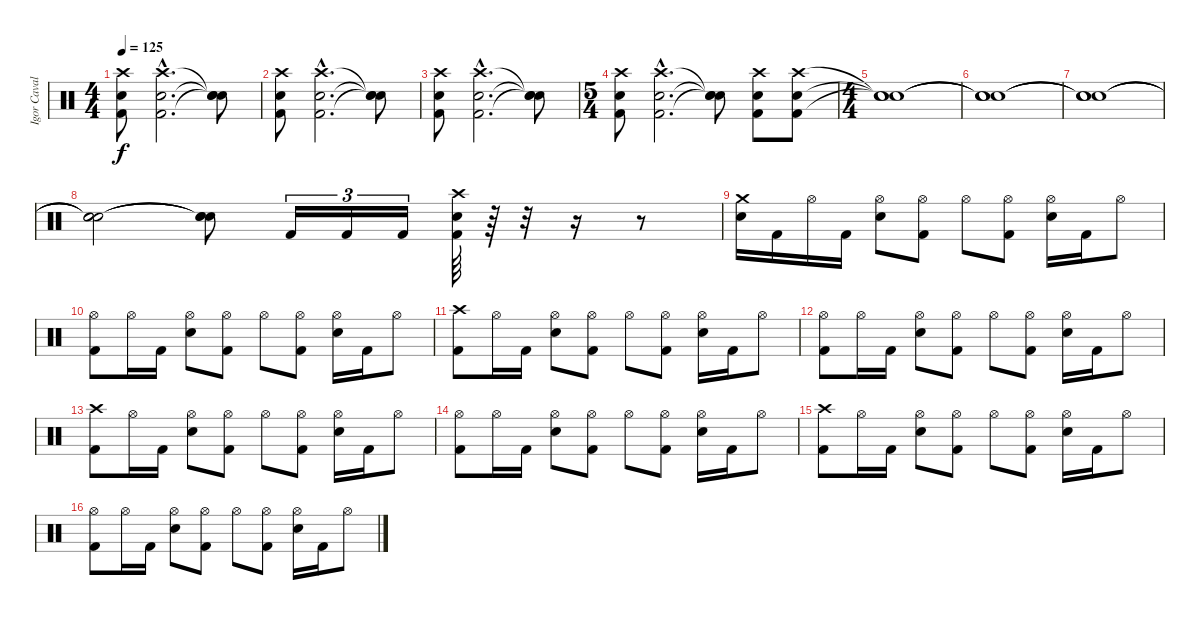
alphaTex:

\track ("Igor Cavalera" "Igor Caval") {instrument percussion}
\staff {score}
\articulation defaults
\ts (4 4)
\tempo 125
\clef neutral
\ks c
("Crash high (hit)" "Electric Snare (hit)" "Kick (hit) 2").8{dy f} ("Crash high (hit)"{hac} "Electric Snare (hit)"{hac} "Kick (hit) 2"{hac}).2{d} ("Snare (hit)"{t} "Snare (hit)"{t} "Snare (hit)"{t}).8 |
("Crash high (hit)" "Electric Snare (hit)" "Kick (hit) 2").8 ("Crash high (hit)"{hac} "Electric Snare (hit)"{hac} "Kick (hit) 2"{hac}).2{d} ("Snare (hit)"{t} "Snare (hit)"{t} "Snare (hit)"{t}).8 |
("Crash high (hit)" "Electric Snare (hit)" "Kick (hit) 2").8 ("Crash high (hit)"{hac} "Electric Snare (hit)"{hac} "Kick (hit) 2"{hac}).2{d} ("Snare (hit)"{t} "Snare (hit)"{t} "Snare (hit)"{t}).8 |
\ts (5 4)
("Crash high (hit)" "Electric Snare (hit)" "Kick (hit) 2").8 ("Crash high (hit)"{hac} "Electric Snare (hit)"{hac} "Kick (hit) 2"{hac}).2{d} ("Snare (hit)"{t} "Snare (hit)"{t} "Snare (hit)"{t}).8 ("Crash high (hit)" "Electric Snare (hit)" "Kick (hit) 2").8 ("Crash high (hit)" "Electric Snare (hit)" "Kick (hit) 2").8 |
\ts (4 4)
("Snare (hit)"{t} "Snare (hit)"{t} "Snare (hit)"{t}).1 |
("Snare (hit)"{t} "Snare (hit)"{t} "Snare (hit)"{t}).1 |
("Snare (hit)"{t} "Snare (hit)"{t} "Snare (hit)"{t}).1 |
("Snare (hit)"{t} "Snare (hit)"{t} "Snare (hit)"{t}).2 ("Snare (hit)"{t} "Snare (hit)"{t} "Snare (hit)"{t}).8 "Kick (hit) 2".16{tu (3 2)} "Kick (hit) 2".16{tu (3 2)} "Kick (hit) 2".16{tu (3 2)} ("Crash high (hit)" "Electric Snare (hit)" "Kick (hit) 2").64 r.64 r.32 r.16 r.8 |
("Crash medium (hit)" "Electric Snare (hit)").16 "Kick (hit) 2".16 "Hi-Hat (open)".16 "Kick (hit) 2".16 ("Hi-Hat (open)" "Electric Snare (hit)").8 ("Hi-Hat (open)" "Kick (hit) 2").8 "Hi-Hat (open)".8 ("Hi-Hat (open)" "Kick (hit) 2").8 ("Hi-Hat (open)" "Electric Snare (hit)").16 "Kick (hit) 2".16 "Hi-Hat (open)".8 |
("Hi-Hat (open)" "Kick (hit) 2").8 "Hi-Hat (open)".16 "Kick (hit) 2".16 ("Hi-Hat (open)" "Electric Snare (hit)").8 ("Hi-Hat (open)" "Kick (hit) 2").8 "Hi-Hat (open)".8 ("Hi-Hat (open)" "Kick (hit) 2").8 ("Hi-Hat (open)" "Electric Snare (hit)").16 "Kick (hit) 2".16 "Hi-Hat (open)".8 |
("Crash high (hit)" "Kick (hit) 2").8 "Hi-Hat (open)".16 "Kick (hit) 2".16 ("Hi-Hat (open)" "Electric Snare (hit)").8 ("Hi-Hat (open)" "Kick (hit) 2").8 "Hi-Hat (open)".8 ("Hi-Hat (open)" "Kick (hit) 2").8 ("Hi-Hat (open)" "Electric Snare (hit)").16 "Kick (hit) 2".16 "Hi-Hat (open)".8 |
("Hi-Hat (open)" "Kick (hit) 2").8 "Hi-Hat (open)".16 "Kick (hit) 2".16 ("Hi-Hat (open)" "Electric Snare (hit)").8 ("Hi-Hat (open)" "Kick (hit) 2").8 "Hi-Hat (open)".8 ("Hi-Hat (open)" "Kick (hit) 2").8 ("Hi-Hat (open)" "Electric Snare (hit)").16 "Kick (hit) 2".16 "Hi-Hat (open)".8 |
("Crash high (hit)" "Kick (hit) 2").8 "Hi-Hat (open)".16 "Kick (hit) 2".16 ("Hi-Hat (open)" "Electric Snare (hit)").8 ("Hi-Hat (open)" "Kick (hit) 2").8 "Hi-Hat (open)".8 ("Hi-Hat (open)" "Kick (hit) 2").8 ("Hi-Hat (open)" "Electric Snare (hit)").16 "Kick (hit) 2".16 "Hi-Hat (open)".8 |
("Hi-Hat (open)" "Kick (hit) 2").8 "Hi-Hat (open)".16 "Kick (hit) 2".16 ("Hi-Hat (open)" "Electric Snare (hit)").8 ("Hi-Hat (open)" "Kick (hit) 2").8 "Hi-Hat (open)".8 ("Hi-Hat (open)" "Kick (hit) 2").8 ("Hi-Hat (open)" "Electric Snare (hit)").16 "Kick (hit) 2".16 "Hi-Hat (open)".8 |
("Crash high (hit)" "Kick (hit) 2").8 "Hi-Hat (open)".16 "Kick (hit) 2".16 ("Hi-Hat (open)" "Electric Snare (hit)").8 ("Hi-Hat (open)" "Kick (hit) 2").8 "Hi-Hat (open)".8 ("Hi-Hat (open)" "Kick (hit) 2").8 ("Hi-Hat (open)" "Electric Snare (hit)").16 "Kick (hit) 2".16 "Hi-Hat (open)".8 |
("Hi-Hat (open)" "Kick (hit) 2").8 "Hi-Hat (open)".16 "Kick (hit) 2".16 ("Hi-Hat (open)" "Electric Snare (hit)").8 ("Hi-Hat (open)" "Kick (hit) 2").8 "Hi-Hat (open)".8 ("Hi-Hat (open)" "Kick (hit) 2").8 ("Hi-Hat (open)" "Electric Snare (hit)").16 "Kick (hit) 2".16 "Hi-Hat (open)".8
